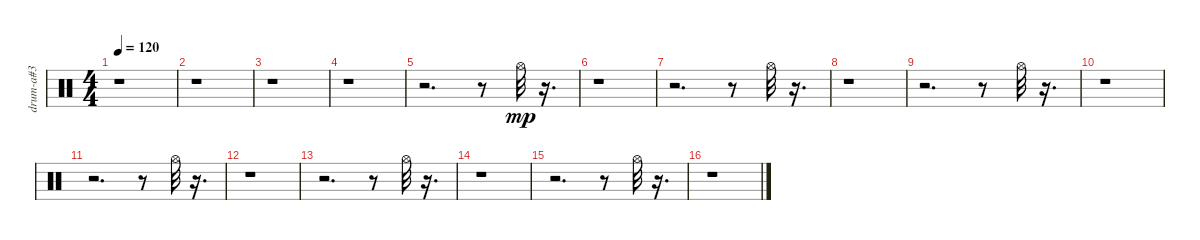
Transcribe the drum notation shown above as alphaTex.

\track ("drum-a#3" "drum-a#3") {instrument percussion}
\staff {score}
\articulation defaults
\ts (4 4)
\tempo 120
\clef neutral
\ks c
r.1{dy mp} |
r.1 |
r.1 |
r.1 |
r.2{d} r.8 "Hi-Hat (open)".32 r.16{d} |
r.1 |
r.2{d} r.8 "Hi-Hat (open)".32 r.16{d} |
r.1 |
r.2{d} r.8 "Hi-Hat (open)".32 r.16{d} |
r.1 |
r.2{d} r.8 "Hi-Hat (open)".32 r.16{d} |
r.1 |
r.2{d} r.8 "Hi-Hat (open)".32 r.16{d} |
r.1 |
r.2{d} r.8 "Hi-Hat (open)".32 r.16{d} |
r.1
